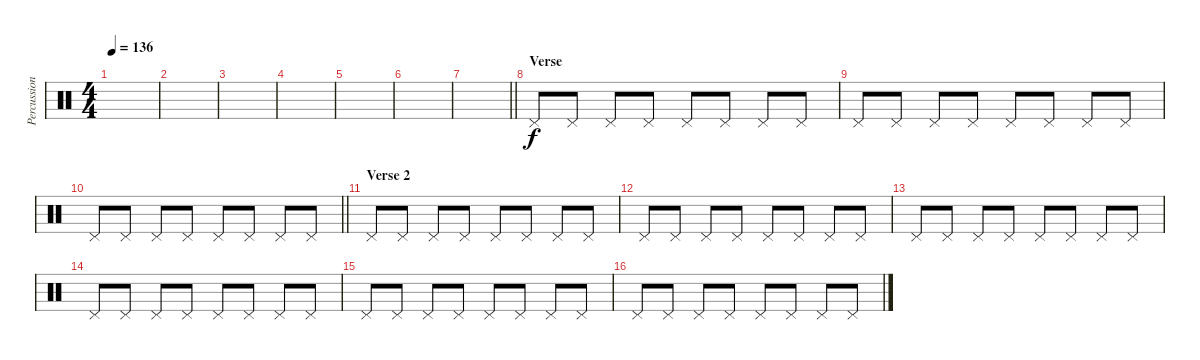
\track ("Percussion" "Percussion") {instrument percussion}
\staff {score}
\articulation defaults
\ts (4 4)
\tempo 136
\clef neutral
\ks c
|
|
|
|
|
|
\barLineRight lightlight
|
\section ("" "Verse")
"Pedal Hi-Hat (hit)".8 "Pedal Hi-Hat (hit)".8 "Pedal Hi-Hat (hit)".8 "Pedal Hi-Hat (hit)".8 "Pedal Hi-Hat (hit)".8 "Pedal Hi-Hat (hit)".8 "Pedal Hi-Hat (hit)".8 "Pedal Hi-Hat (hit)".8 |
"Pedal Hi-Hat (hit)".8 "Pedal Hi-Hat (hit)".8 "Pedal Hi-Hat (hit)".8 "Pedal Hi-Hat (hit)".8 "Pedal Hi-Hat (hit)".8 "Pedal Hi-Hat (hit)".8 "Pedal Hi-Hat (hit)".8 "Pedal Hi-Hat (hit)".8 |
\barLineRight lightlight "Pedal Hi-Hat (hit)".8 "Pedal Hi-Hat (hit)".8 "Pedal Hi-Hat (hit)".8 "Pedal Hi-Hat (hit)".8 "Pedal Hi-Hat (hit)".8 "Pedal Hi-Hat (hit)".8 "Pedal Hi-Hat (hit)".8 "Pedal Hi-Hat (hit)".8
|
\section ("" "Verse 2")
"Pedal Hi-Hat (hit)".8 "Pedal Hi-Hat (hit)".8 "Pedal Hi-Hat (hit)".8 "Pedal Hi-Hat (hit)".8 "Pedal Hi-Hat (hit)".8 "Pedal Hi-Hat (hit)".8 "Pedal Hi-Hat (hit)".8 "Pedal Hi-Hat (hit)".8 |
"Pedal Hi-Hat (hit)".8 "Pedal Hi-Hat (hit)".8 "Pedal Hi-Hat (hit)".8 "Pedal Hi-Hat (hit)".8 "Pedal Hi-Hat (hit)".8 "Pedal Hi-Hat (hit)".8 "Pedal Hi-Hat (hit)".8 "Pedal Hi-Hat (hit)".8 |
"Pedal Hi-Hat (hit)".8 "Pedal Hi-Hat (hit)".8 "Pedal Hi-Hat (hit)".8 "Pedal Hi-Hat (hit)".8 "Pedal Hi-Hat (hit)".8 "Pedal Hi-Hat (hit)".8 "Pedal Hi-Hat (hit)".8 "Pedal Hi-Hat (hit)".8 |
"Pedal Hi-Hat (hit)".8 "Pedal Hi-Hat (hit)".8 "Pedal Hi-Hat (hit)".8 "Pedal Hi-Hat (hit)".8 "Pedal Hi-Hat (hit)".8 "Pedal Hi-Hat (hit)".8 "Pedal Hi-Hat (hit)".8 "Pedal Hi-Hat (hit)".8 |
"Pedal Hi-Hat (hit)".8 "Pedal Hi-Hat (hit)".8 "Pedal Hi-Hat (hit)".8 "Pedal Hi-Hat (hit)".8 "Pedal Hi-Hat (hit)".8 "Pedal Hi-Hat (hit)".8 "Pedal Hi-Hat (hit)".8 "Pedal Hi-Hat (hit)".8 |
"Pedal Hi-Hat (hit)".8 "Pedal Hi-Hat (hit)".8 "Pedal Hi-Hat (hit)".8 "Pedal Hi-Hat (hit)".8 "Pedal Hi-Hat (hit)".8 "Pedal Hi-Hat (hit)".8 "Pedal Hi-Hat (hit)".8 "Pedal Hi-Hat (hit)".8
